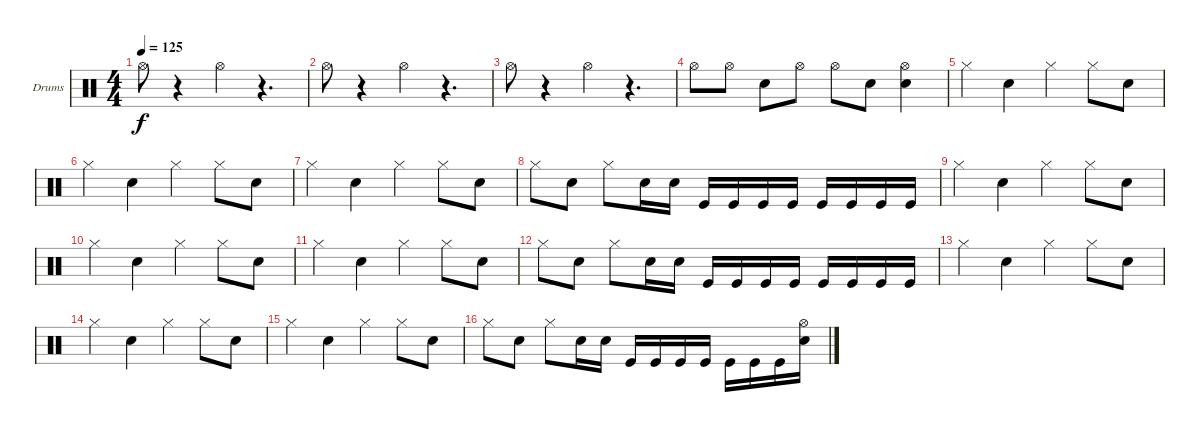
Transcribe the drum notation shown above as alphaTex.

\defaultSystemsLayout 4
\bracketExtendMode groupsimilarinstruments
\firstSystemTrackNameOrientation horizontal
\otherSystemsTrackNameOrientation horizontal
\track ("Барабаны1" "Drums") {instrument percussion}
\staff {score}
\articulation defaults
\ts (4 4)
\tempo 125
\clef neutral
\scale
0.322034
\ks c "Hi-Hat (open)".8{dy f}
r.4 "Hi-Hat (open)".4 r.4{d} |
\scale
0.333333 "Hi-Hat (open)".8 r.4 "Hi-Hat (open)".4 r.4{d} |
\scale
0.333333 "Hi-Hat (open)".8 r.4 "Hi-Hat (open)".4 r.4{d} |
\scale
0.333333 "Hi-Hat (open)".8 "Hi-Hat (open)".8 "Snare (hit) 2".8 "Hi-Hat (open)".8 "Hi-Hat (open)".8 "Snare (hit) 2".8 ("Snare (hit) 2" "Hi-Hat (open)").4 |
\scale
0.333333 "Hi-Hat (closed)".4 "Snare (hit) 2".4 "Hi-Hat (closed)".4 "Hi-Hat (closed)".8 "Snare (hit) 2".8 |
\scale
0.333333 "Hi-Hat (closed)".4 "Snare (hit) 2".4 "Hi-Hat (closed)".4 "Hi-Hat (closed)".8 "Snare (hit) 2".8 |
\scale
0.333333 "Hi-Hat (closed)".4 "Snare (hit) 2".4 "Hi-Hat (closed)".4 "Hi-Hat (closed)".8 "Snare (hit) 2".8 |
"Hi-Hat (closed)".8 "Snare (hit) 2".8 "Hi-Hat (closed)".8 "Snare (hit) 2".16 "Snare (hit) 2".16 "Kick (hit)".16 "Kick (hit)".16 "Kick (hit)".16 "Kick (hit)".16 "Kick (hit)".16 "Kick (hit)".16 "Kick (hit)".16 "Kick (hit)".16 |
"Hi-Hat (closed)".4 "Snare (hit) 2".4 "Hi-Hat (closed)".4 "Hi-Hat (closed)".8 "Snare (hit) 2".8 |
"Hi-Hat (closed)".4 "Snare (hit) 2".4 "Hi-Hat (closed)".4 "Hi-Hat (closed)".8 "Snare (hit) 2".8 |
"Hi-Hat (closed)".4 "Snare (hit) 2".4 "Hi-Hat (closed)".4 "Hi-Hat (closed)".8 "Snare (hit) 2".8 |
"Hi-Hat (closed)".8 "Snare (hit) 2".8 "Hi-Hat (closed)".8 "Snare (hit) 2".16 "Snare (hit) 2".16 "Kick (hit)".16 "Kick (hit)".16 "Kick (hit)".16 "Kick (hit)".16 "Kick (hit)".16 "Kick (hit)".16 "Kick (hit)".16 "Kick (hit)".16 |
"Hi-Hat (closed)".4 "Snare (hit) 2".4 "Hi-Hat (closed)".4 "Hi-Hat (closed)".8 "Snare (hit) 2".8 |
"Hi-Hat (closed)".4 "Snare (hit) 2".4 "Hi-Hat (closed)".4 "Hi-Hat (closed)".8 "Snare (hit) 2".8 |
"Hi-Hat (closed)".4 "Snare (hit) 2".4 "Hi-Hat (closed)".4 "Hi-Hat (closed)".8 "Snare (hit) 2".8 |
"Hi-Hat (closed)".8 "Snare (hit) 2".8 "Hi-Hat (closed)".8 "Snare (hit) 2".16 "Snare (hit) 2".16 "Kick (hit)".16 "Kick (hit)".16 "Kick (hit)".16 "Kick (hit)".16 "Kick (hit)".16 "Kick (hit)".16 "Kick (hit)".16 ("Snare (hit) 2" "Hi-Hat (open)").16
